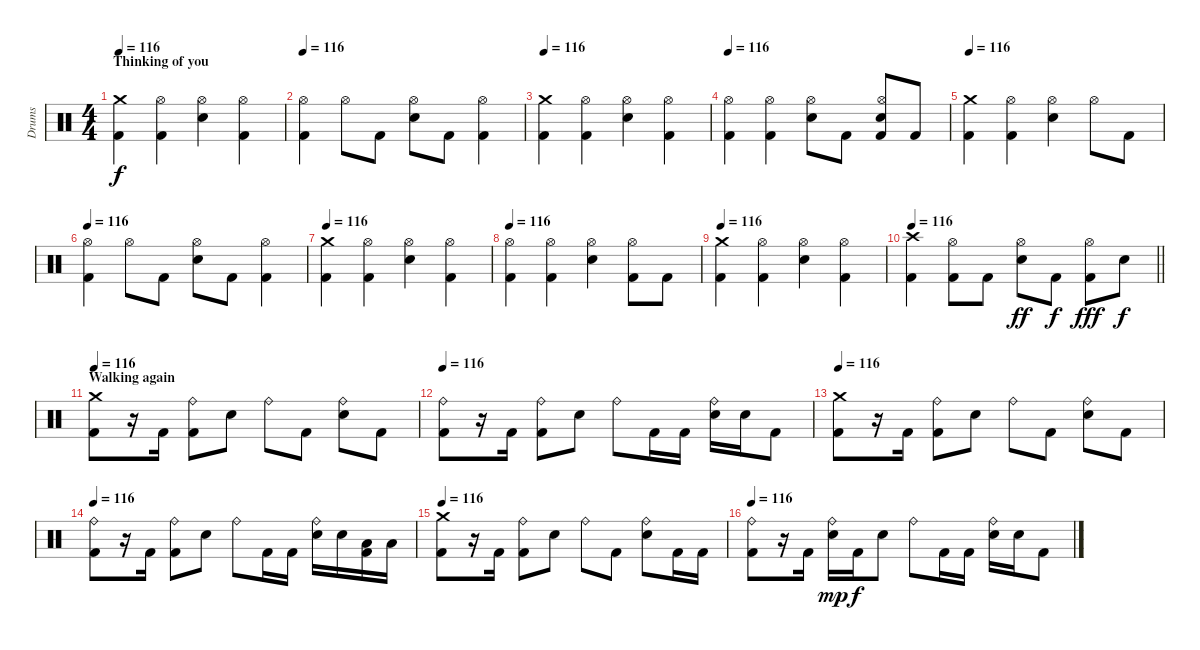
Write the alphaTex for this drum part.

\track ("Drums" "Drums") {instrument percussion}
\staff {score}
\articulation defaults
\ts (4 4)
\section ("" "Thinking of you")
\tempo 116
\clef neutral
\ks c
("Crash medium (hit)" "Kick (hit) 2").4{dy f} ("Hi-Hat (open)" "Kick (hit) 2").4 ("Hi-Hat (open)" "Snare (hit) 2").4 ("Hi-Hat (open)" "Kick (hit) 2").4 |
\tempo 116
("Hi-Hat (open)" "Kick (hit) 2").4 "Hi-Hat (open)".8 "Kick (hit) 2".8 ("Hi-Hat (open)" "Snare (hit) 2").8 "Kick (hit) 2".8 ("Hi-Hat (open)" "Kick (hit) 2").4 |
\tempo 116
("Crash medium (hit)" "Kick (hit) 2").4 ("Hi-Hat (open)" "Kick (hit) 2").4 ("Hi-Hat (open)" "Snare (hit) 2").4 ("Hi-Hat (open)" "Kick (hit) 2").4 |
\tempo 116
("Hi-Hat (open)" "Kick (hit) 2").4 ("Hi-Hat (open)" "Kick (hit) 2").4 ("Hi-Hat (open)" "Snare (hit) 2").8 "Kick (hit) 2".8 ("Hi-Hat (open)" "Snare (hit) 2" "Kick (hit) 2").8 "Kick (hit) 2".8 |
\tempo 116
("Crash medium (hit)" "Kick (hit) 2").4 ("Hi-Hat (open)" "Kick (hit) 2").4 ("Hi-Hat (open)" "Snare (hit) 2").4 "Hi-Hat (open)".8 "Kick (hit) 2".8 |
\tempo 116
("Hi-Hat (open)" "Kick (hit) 2").4 "Hi-Hat (open)".8 "Kick (hit) 2".8 ("Hi-Hat (open)" "Snare (hit) 2").8 "Kick (hit) 2".8 ("Hi-Hat (open)" "Kick (hit) 2").4 |
\tempo 116
("Crash medium (hit)" "Kick (hit) 2").4 ("Hi-Hat (open)" "Kick (hit) 2").4 ("Hi-Hat (open)" "Snare (hit) 2").4 ("Hi-Hat (open)" "Kick (hit) 2").4 |
\tempo 116
("Hi-Hat (open)" "Kick (hit) 2").4 ("Hi-Hat (open)" "Kick (hit) 2").4 ("Hi-Hat (open)" "Snare (hit) 2").4 ("Hi-Hat (open)" "Kick (hit) 2").8 "Kick (hit) 2".8 |
\tempo 116
("Crash medium (hit)" "Kick (hit) 2").4 ("Hi-Hat (open)" "Kick (hit) 2").4 ("Hi-Hat (open)" "Snare (hit) 2").4 ("Hi-Hat (open)" "Kick (hit) 2").4 |
\tempo 116
\barLineRight lightlight
("Crash high (hit)" "Kick (hit) 2").4 ("Hi-Hat (open)" "Kick (hit) 2").8 "Kick (hit) 2".8 ("Hi-Hat (open)" "Snare (hit) 2").8{dy ff} "Kick (hit) 2".8{dy f} ("Hi-Hat (open)" "Kick (hit) 2").8{dy fff} "Snare (hit) 2".8{dy f} |
\section ("" "Walking again")
\tempo 116
("Crash medium (hit)" "Kick (hit) 2").8 r.16 "Kick (hit) 2".16 ("Ride (bell)" "Kick (hit) 2").8 "Snare (hit) 2".8 "Ride (bell)".8 "Kick (hit) 2".8 ("Ride (bell)" "Snare (hit) 2").8 "Kick (hit) 2".8 |
\tempo 116
("Ride (bell)" "Kick (hit) 2").8 r.16 "Kick (hit) 2".16 ("Ride (bell)" "Kick (hit) 2").8 "Snare (hit) 2".8 "Ride (bell)".8 "Kick (hit) 2".16 "Kick (hit) 2".16 ("Ride (bell)" "Snare (hit) 2").16 "Snare (hit) 2".16 "Kick (hit) 2".8 |
\tempo 116
("Crash medium (hit)" "Kick (hit) 2").8 r.16 "Kick (hit) 2".16 ("Ride (bell)" "Kick (hit) 2").8 "Snare (hit) 2".8 "Ride (bell)".8 "Kick (hit) 2".8 ("Ride (bell)" "Snare (hit) 2").8 "Kick (hit) 2".8 |
\tempo 116
("Ride (bell)" "Kick (hit) 2").8 r.16 "Kick (hit) 2".16 ("Ride (bell)" "Kick (hit) 2").8 "Snare (hit) 2".8 "Ride (bell)".8 "Kick (hit) 2".16 "Kick (hit) 2".16 ("Ride (bell)" "Snare (hit) 2").16 "Snare (hit) 2".16 ("Low Tom (hit)" "Kick (hit) 2").16 "Low Tom (hit)".16 |
\tempo 116
("Crash medium (hit)" "Kick (hit) 2").8 r.16 "Kick (hit) 2".16 ("Ride (bell)" "Kick (hit) 2").8 "Snare (hit) 2".8 "Ride (bell)".8 "Kick (hit) 2".8 ("Ride (bell)" "Snare (hit) 2").8 "Kick (hit) 2".16 "Kick (hit) 2".16 |
\tempo 116
("Ride (bell)" "Kick (hit) 2").8 r.16 "Kick (hit) 2".16 ("Ride (bell)" "Snare (hit) 2").16{dy mp} "Kick (hit) 2".16{dy f} "Snare (hit) 2".8 "Ride (bell)".8 "Kick (hit) 2".16 "Kick (hit) 2".16 ("Ride (bell)" "Snare (hit) 2").16 "Snare (hit) 2".16 "Kick (hit) 2".8
